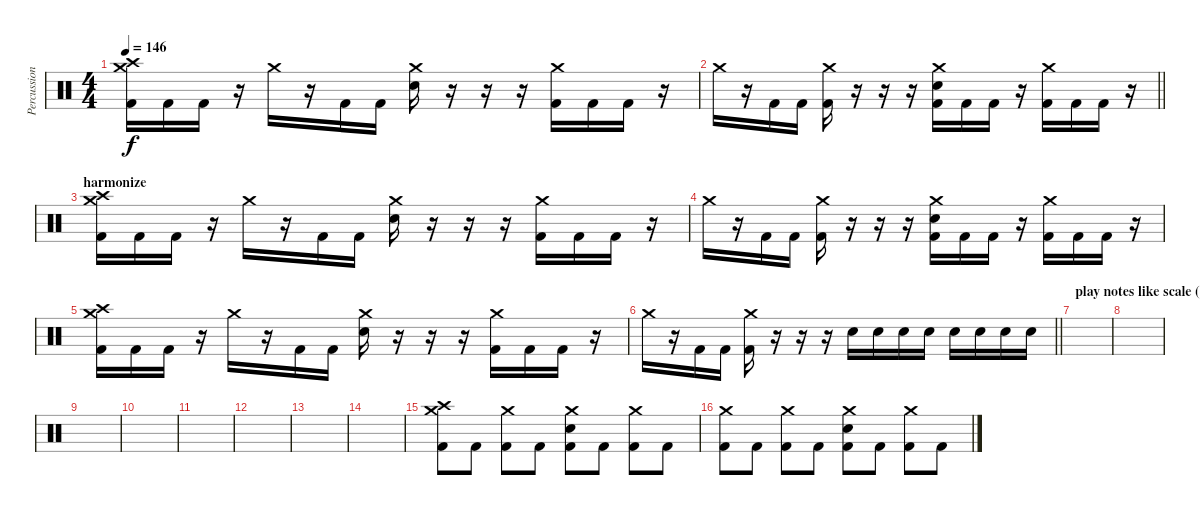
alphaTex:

\track ("Percussion" "Percussion") {instrument percussion}
\staff {score}
\articulation defaults
\ts (4 4)
\tempo 146
\clef neutral
\ks c
("Crash high (hit)" "Crash medium (hit)" "Kick (hit) 2").16{dy f} "Kick (hit) 2".16 "Kick (hit) 2".16 r.16 "Crash medium (hit)".16 r.16 "Kick (hit) 2".16 "Kick (hit) 2".16 ("Crash medium (hit)" "Snare (hit) 2").16 r.16 r.16 r.16 ("Crash medium (hit)" "Kick (hit) 2").16 "Kick (hit) 2".16 "Kick (hit) 2".16 r.16 |
\barLineRight lightlight "Crash medium (hit)".16
r.16 "Kick (hit) 2".16 "Kick (hit) 2".16 ("Crash medium (hit)" "Kick (hit) 2").16 r.16 r.16 r.16 ("Crash medium (hit)" "Snare (hit) 2" "Kick (hit) 2").16 "Kick (hit) 2".16 "Kick (hit) 2".16 r.16 ("Crash medium (hit)" "Kick (hit) 2").16 "Kick (hit) 2".16 "Kick (hit) 2".16 r.16 |
\section ("" "harmonize")
("Crash high (hit)" "Crash medium (hit)" "Kick (hit) 2").16 "Kick (hit) 2".16 "Kick (hit) 2".16 r.16 "Crash medium (hit)".16 r.16 "Kick (hit) 2".16 "Kick (hit) 2".16 ("Crash medium (hit)" "Snare (hit) 2").16 r.16 r.16 r.16 ("Crash medium (hit)" "Kick (hit) 2").16 "Kick (hit) 2".16 "Kick (hit) 2".16 r.16 |
"Crash medium (hit)".16 r.16 "Kick (hit) 2".16 "Kick (hit) 2".16 ("Crash medium (hit)" "Kick (hit) 2").16 r.16 r.16 r.16 ("Crash medium (hit)" "Snare (hit) 2" "Kick (hit) 2").16 "Kick (hit) 2".16 "Kick (hit) 2".16 r.16 ("Crash medium (hit)" "Kick (hit) 2").16 "Kick (hit) 2".16 "Kick (hit) 2".16 r.16 |
("Crash high (hit)" "Crash medium (hit)" "Kick (hit) 2").16 "Kick (hit) 2".16 "Kick (hit) 2".16 r.16 "Crash medium (hit)".16 r.16 "Kick (hit) 2".16 "Kick (hit) 2".16 ("Crash medium (hit)" "Snare (hit) 2").16 r.16 r.16 r.16 ("Crash medium (hit)" "Kick (hit) 2").16 "Kick (hit) 2".16 "Kick (hit) 2".16 r.16 |
\barLineRight lightlight "Crash medium (hit)".16
r.16 "Kick (hit) 2".16 "Kick (hit) 2".16 ("Crash medium (hit)" "Kick (hit) 2").16 r.16 r.16 r.16 "Snare (hit) 2".16 "Snare (hit) 2".16 "Snare (hit) 2".16 "Snare (hit) 2".16 "Snare (hit) 2".16 "Snare (hit) 2".16 "Snare (hit) 2".16 "Snare (hit) 2".16 |
\section ("" "play notes like scale (project!)")
|
|
|
|
|
|
|
|
("Crash high (hit)" "Crash medium (hit)" "Kick (hit) 2").8 "Kick (hit) 2".8 ("Crash medium (hit)" "Kick (hit) 2").8 "Kick (hit) 2".8 ("Crash medium (hit)" "Snare (hit) 2" "Kick (hit) 2").8 "Kick (hit) 2".8 ("Crash medium (hit)" "Kick (hit) 2").8 "Kick (hit) 2".8 |
("Crash medium (hit)" "Kick (hit) 2").8 "Kick (hit) 2".8 ("Crash medium (hit)" "Kick (hit) 2").8 "Kick (hit) 2".8 ("Crash medium (hit)" "Snare (hit) 2" "Kick (hit) 2").8 "Kick (hit) 2".8 ("Crash medium (hit)" "Kick (hit) 2").8 "Kick (hit) 2".8
